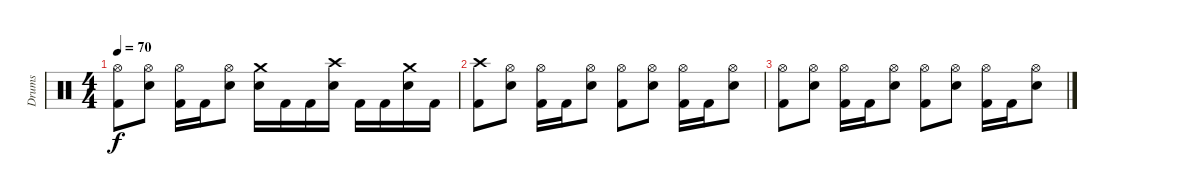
\track ("Drums" "Drums") {instrument percussion}
\staff {score}
\articulation defaults
\ts (4 4)
\tempo 70
\clef neutral
\ks c
("Hi-Hat (open)" "Kick (hit) 2").8{dy f} ("Hi-Hat (open)" "Snare (hit) 2").8 ("Hi-Hat (open)" "Kick (hit) 2").16 "Kick (hit) 2".16 ("Hi-Hat (open)" "Snare (hit) 2").8 ("Crash medium (hit)" "Snare (hit) 2").16 "Kick (hit) 2".16 "Kick (hit) 2".16 ("Crash high (hit)" "Snare (hit) 2").16 "Kick (hit) 2".16 "Kick (hit) 2".16 ("Crash medium (hit)" "Snare (hit) 2").16 "Kick (hit) 2".16 |
("Crash high (hit)" "Kick (hit) 2").8 ("Hi-Hat (open)" "Snare (hit) 2").8 ("Hi-Hat (open)" "Kick (hit) 2").16 "Kick (hit) 2".16 ("Hi-Hat (open)" "Snare (hit) 2").8 ("Hi-Hat (open)" "Kick (hit) 2").8 ("Hi-Hat (open)" "Snare (hit) 2").8 ("Hi-Hat (open)" "Kick (hit) 2").16 "Kick (hit) 2".16 ("Hi-Hat (open)" "Snare (hit) 2").8 |
("Hi-Hat (open)" "Kick (hit) 2").8 ("Hi-Hat (open)" "Snare (hit) 2").8 ("Hi-Hat (open)" "Kick (hit) 2").16 "Kick (hit) 2".16 ("Hi-Hat (open)" "Snare (hit) 2").8 ("Hi-Hat (open)" "Kick (hit) 2").8 ("Hi-Hat (open)" "Snare (hit) 2").8 ("Hi-Hat (open)" "Kick (hit) 2").16 "Kick (hit) 2".16 ("Hi-Hat (open)" "Snare (hit) 2").8
